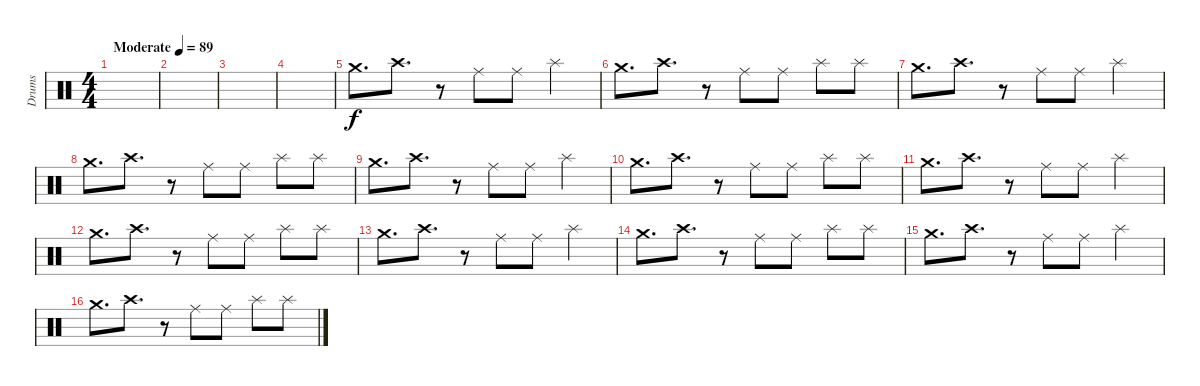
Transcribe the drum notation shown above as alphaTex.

\track ("Drums" "Drums") {instrument percussion}
\staff {score}
\articulation defaults
\ts (4 4)
\tempo (89 "Moderate")
\clef neutral
\ks c
|
|
|
|
"Crash medium (hit)".8{d} "Crash high (hit)".8{d} r.8 "Ride (middle)".8 "Ride (middle)".8 "Splash (hit)".4 |
"Crash medium (hit)".8{d} "Crash high (hit)".8{d} r.8 "Ride (middle)".8 "Ride (middle)".8 "Splash (hit)".8 "Splash (hit)".8 |
"Crash medium (hit)".8{d} "Crash high (hit)".8{d} r.8 "Ride (middle)".8 "Ride (middle)".8 "Splash (hit)".4 |
"Crash medium (hit)".8{d} "Crash high (hit)".8{d} r.8 "Ride (middle)".8 "Ride (middle)".8 "Splash (hit)".8 "Splash (hit)".8 |
"Crash medium (hit)".8{d} "Crash high (hit)".8{d} r.8 "Ride (middle)".8 "Ride (middle)".8 "Splash (hit)".4 |
"Crash medium (hit)".8{d} "Crash high (hit)".8{d} r.8 "Ride (middle)".8 "Ride (middle)".8 "Splash (hit)".8 "Splash (hit)".8 |
"Crash medium (hit)".8{d} "Crash high (hit)".8{d} r.8 "Ride (middle)".8 "Ride (middle)".8 "Splash (hit)".4 |
"Crash medium (hit)".8{d} "Crash high (hit)".8{d} r.8 "Ride (middle)".8 "Ride (middle)".8 "Splash (hit)".8 "Splash (hit)".8 |
"Crash medium (hit)".8{d} "Crash high (hit)".8{d} r.8 "Ride (middle)".8 "Ride (middle)".8 "Splash (hit)".4 |
"Crash medium (hit)".8{d} "Crash high (hit)".8{d} r.8 "Ride (middle)".8 "Ride (middle)".8 "Splash (hit)".8 "Splash (hit)".8 |
"Crash medium (hit)".8{d} "Crash high (hit)".8{d} r.8 "Ride (middle)".8 "Ride (middle)".8 "Splash (hit)".4 |
"Crash medium (hit)".8{d} "Crash high (hit)".8{d} r.8 "Ride (middle)".8 "Ride (middle)".8 "Splash (hit)".8 "Splash (hit)".8
